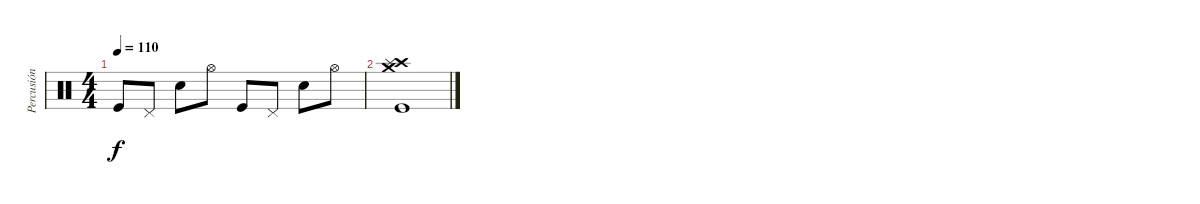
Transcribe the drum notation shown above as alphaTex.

\track ("Percusión" "Percusión") {instrument percussion}
\staff {score}
\articulation defaults
\ts (4 4)
\tempo 110
\clef neutral
\ks c "Kick (hit)".8{dy f} "Pedal Hi-Hat (hit)".8 "Electric Snare (hit)".8 "Hi-Hat (open)".8 "Kick (hit)".8 "Pedal Hi-Hat (hit)".8 "Electric Snare (hit)".8 "Hi-Hat (open)".8
|
("Crash high (hit)" "Kick (hit)" "Crash medium (hit)" "Splash (hit)").1
